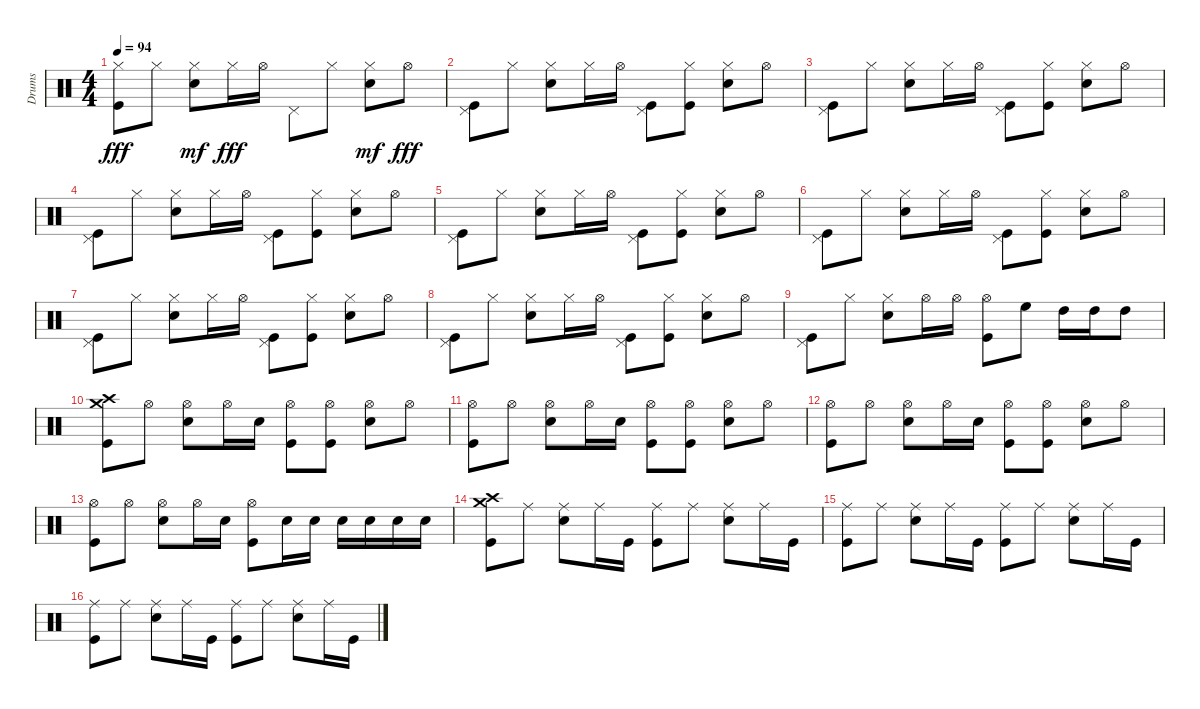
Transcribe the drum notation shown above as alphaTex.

\track ("Drums" "Drums") {instrument percussion}
\staff {score}
\articulation defaults
\ts (4 4)
\tempo 94
\clef neutral
\ks c
("Hi-Hat (closed)" "Kick (hit)").8{dy fff} "Hi-Hat (closed)".8 ("Hi-Hat (closed)" "Snare (hit) 2").8{dy mf} "Hi-Hat (closed)".16{dy fff} "Hi-Hat (open)".16 "Pedal Hi-Hat (hit)".8 "Hi-Hat (closed)".8 ("Hi-Hat (closed)" "Snare (hit) 2").8{dy mf} "Hi-Hat (open)".8{dy fff} |
("Pedal Hi-Hat (hit)" "Kick (hit)").8 "Hi-Hat (closed)".8 ("Hi-Hat (closed)" "Snare (hit) 2").8 "Hi-Hat (closed)".16 "Hi-Hat (open)".16 ("Pedal Hi-Hat (hit)" "Kick (hit)").8 ("Hi-Hat (closed)" "Kick (hit)").8 ("Hi-Hat (closed)" "Snare (hit) 2").8 "Hi-Hat (open)".8 |
("Pedal Hi-Hat (hit)" "Kick (hit)").8 "Hi-Hat (closed)".8 ("Hi-Hat (closed)" "Snare (hit) 2").8 "Hi-Hat (closed)".16 "Hi-Hat (open)".16 ("Pedal Hi-Hat (hit)" "Kick (hit)").8 ("Hi-Hat (closed)" "Kick (hit)").8 ("Hi-Hat (closed)" "Snare (hit) 2").8 "Hi-Hat (open)".8 |
("Pedal Hi-Hat (hit)" "Kick (hit)").8 "Hi-Hat (closed)".8 ("Hi-Hat (closed)" "Snare (hit) 2").8 "Hi-Hat (closed)".16 "Hi-Hat (open)".16 ("Pedal Hi-Hat (hit)" "Kick (hit)").8 ("Hi-Hat (closed)" "Kick (hit)").8 ("Hi-Hat (closed)" "Snare (hit) 2").8 "Hi-Hat (open)".8 |
("Pedal Hi-Hat (hit)" "Kick (hit)").8 "Hi-Hat (closed)".8 ("Hi-Hat (closed)" "Snare (hit) 2").8 "Hi-Hat (closed)".16 "Hi-Hat (open)".16 ("Pedal Hi-Hat (hit)" "Kick (hit)").8 ("Hi-Hat (closed)" "Kick (hit)").8 ("Hi-Hat (closed)" "Snare (hit) 2").8 "Hi-Hat (open)".8 |
("Pedal Hi-Hat (hit)" "Kick (hit)").8 "Hi-Hat (closed)".8 ("Hi-Hat (closed)" "Snare (hit) 2").8 "Hi-Hat (closed)".16 "Hi-Hat (open)".16 ("Pedal Hi-Hat (hit)" "Kick (hit)").8 ("Hi-Hat (closed)" "Kick (hit)").8 ("Hi-Hat (closed)" "Snare (hit) 2").8 "Hi-Hat (open)".8 |
("Pedal Hi-Hat (hit)" "Kick (hit)").8 "Hi-Hat (closed)".8 ("Hi-Hat (closed)" "Snare (hit) 2").8 "Hi-Hat (closed)".16 "Hi-Hat (open)".16 ("Pedal Hi-Hat (hit)" "Kick (hit)").8 ("Hi-Hat (closed)" "Kick (hit)").8 ("Hi-Hat (closed)" "Snare (hit) 2").8 "Hi-Hat (open)".8 |
("Pedal Hi-Hat (hit)" "Kick (hit)").8 "Hi-Hat (closed)".8 ("Hi-Hat (closed)" "Snare (hit) 2").8 "Hi-Hat (closed)".16 "Hi-Hat (open)".16 ("Pedal Hi-Hat (hit)" "Kick (hit)").8 ("Hi-Hat (closed)" "Kick (hit)").8 ("Hi-Hat (closed)" "Snare (hit) 2").8 "Hi-Hat (open)".8 |
("Pedal Hi-Hat (hit)" "Kick (hit)").8 "Hi-Hat (closed)".8 ("Hi-Hat (closed)" "Snare (hit) 2").8 "Hi-Hat (open)".16 "Hi-Hat (open)".16 ("Hi-Hat (open)" "Kick (hit)").8 "High Floor Tom (hit)".8 "High Tom (hit)".16 "High Tom (hit)".16 "High Tom (hit)".8 |
("Crash high (hit)" "Crash medium (hit)" "Kick (hit)").8 "Hi-Hat (open)".8 ("Hi-Hat (open)" "Snare (hit) 2").8 "Hi-Hat (open)".16 "Snare (hit) 2".16 ("Hi-Hat (open)" "Kick (hit)").8 ("Hi-Hat (open)" "Kick (hit)").8 ("Hi-Hat (open)" "Snare (hit) 2").8 "Hi-Hat (open)".8 |
("Hi-Hat (open)" "Kick (hit)").8 "Hi-Hat (open)".8 ("Hi-Hat (open)" "Snare (hit) 2").8 "Hi-Hat (open)".16 "Snare (hit) 2".16 ("Hi-Hat (open)" "Kick (hit)").8 ("Hi-Hat (open)" "Kick (hit)").8 ("Hi-Hat (open)" "Snare (hit) 2").8 "Hi-Hat (open)".8 |
("Hi-Hat (open)" "Kick (hit)").8 "Hi-Hat (open)".8 ("Hi-Hat (open)" "Snare (hit) 2").8 "Hi-Hat (open)".16 "Snare (hit) 2".16 ("Hi-Hat (open)" "Kick (hit)").8 ("Hi-Hat (open)" "Kick (hit)").8 ("Hi-Hat (open)" "Snare (hit) 2").8 "Hi-Hat (open)".8 |
("Hi-Hat (open)" "Kick (hit)").8 "Hi-Hat (open)".8 ("Hi-Hat (open)" "Snare (hit) 2").8 "Hi-Hat (open)".16 "Snare (hit) 2".16 ("Hi-Hat (open)" "Kick (hit)").8 "Snare (hit) 2".16 "Snare (hit) 2".16 "Snare (hit) 2".16 "Snare (hit) 2".16 "Snare (hit) 2".16 "Snare (hit) 2".16 |
("Crash high (hit)" "Crash medium (hit)" "Kick (hit)").8 "Ride (middle)".8 ("Ride (middle)" "Snare (hit) 2").8 "Ride (middle)".16 "Kick (hit)".16 ("Ride (middle)" "Kick (hit)").8 "Ride (middle)".8 ("Ride (middle)" "Snare (hit) 2").8 "Ride (middle)".16 "Kick (hit)".16 |
("Ride (middle)" "Kick (hit)").8 "Ride (middle)".8 ("Ride (middle)" "Snare (hit) 2").8 "Ride (middle)".16 "Kick (hit)".16 ("Ride (middle)" "Kick (hit)").8 "Ride (middle)".8 ("Ride (middle)" "Snare (hit) 2").8 "Ride (middle)".16 "Kick (hit)".16 |
("Ride (middle)" "Kick (hit)").8 "Ride (middle)".8 ("Ride (middle)" "Snare (hit) 2").8 "Ride (middle)".16 "Kick (hit)".16 ("Ride (middle)" "Kick (hit)").8 "Ride (middle)".8 ("Ride (middle)" "Snare (hit) 2").8 "Ride (middle)".16 "Kick (hit)".16
